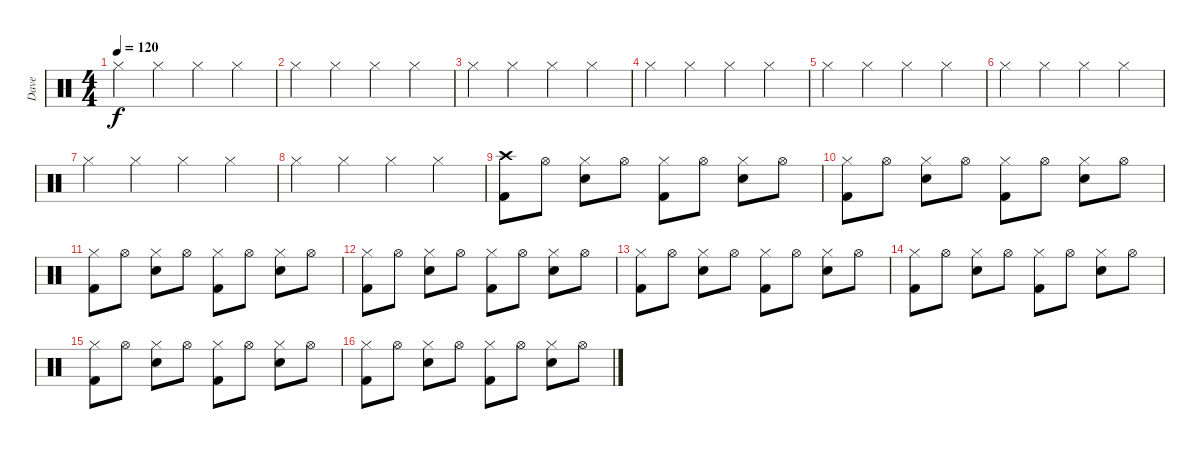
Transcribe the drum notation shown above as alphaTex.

\track ("Dave" "Dave") {instrument percussion}
\staff {score}
\articulation defaults
\ts (4 4)
\tempo 120
\clef neutral
\ks c "Hi-Hat (closed)".4{dy f} "Hi-Hat (closed)".4 "Hi-Hat (closed)".4 "Hi-Hat (closed)".4
|
"Hi-Hat (closed)".4 "Hi-Hat (closed)".4 "Hi-Hat (closed)".4 "Hi-Hat (closed)".4 |
"Hi-Hat (closed)".4 "Hi-Hat (closed)".4 "Hi-Hat (closed)".4 "Hi-Hat (closed)".4 |
"Hi-Hat (closed)".4 "Hi-Hat (closed)".4 "Hi-Hat (closed)".4 "Hi-Hat (closed)".4 |
"Hi-Hat (closed)".4 "Hi-Hat (closed)".4 "Hi-Hat (closed)".4 "Hi-Hat (closed)".4 |
"Hi-Hat (closed)".4 "Hi-Hat (closed)".4 "Hi-Hat (closed)".4 "Hi-Hat (closed)".4 |
"Hi-Hat (closed)".4 "Hi-Hat (closed)".4 "Hi-Hat (closed)".4 "Hi-Hat (closed)".4 |
"Hi-Hat (closed)".4 "Hi-Hat (closed)".4 "Hi-Hat (closed)".4 "Hi-Hat (closed)".4 |
("Crash high (hit)" "Kick (hit) 2").8 "Hi-Hat (open)".8 ("Hi-Hat (closed)" "Snare (hit) 2").8 "Hi-Hat (open)".8 ("Hi-Hat (closed)" "Kick (hit) 2").8 "Hi-Hat (open)".8 ("Hi-Hat (closed)" "Snare (hit) 2").8 "Hi-Hat (open)".8 |
("Hi-Hat (closed)" "Kick (hit) 2").8 "Hi-Hat (open)".8 ("Hi-Hat (closed)" "Snare (hit) 2").8 "Hi-Hat (open)".8 ("Hi-Hat (closed)" "Kick (hit) 2").8 "Hi-Hat (open)".8 ("Hi-Hat (closed)" "Snare (hit) 2").8 "Hi-Hat (open)".8 |
("Hi-Hat (closed)" "Kick (hit) 2").8 "Hi-Hat (open)".8 ("Hi-Hat (closed)" "Snare (hit) 2").8 "Hi-Hat (open)".8 ("Hi-Hat (closed)" "Kick (hit) 2").8 "Hi-Hat (open)".8 ("Hi-Hat (closed)" "Snare (hit) 2").8 "Hi-Hat (open)".8 |
("Hi-Hat (closed)" "Kick (hit) 2").8 "Hi-Hat (open)".8 ("Hi-Hat (closed)" "Snare (hit) 2").8 "Hi-Hat (open)".8 ("Hi-Hat (closed)" "Kick (hit) 2").8 "Hi-Hat (open)".8 ("Hi-Hat (closed)" "Snare (hit) 2").8 "Hi-Hat (open)".8 |
("Hi-Hat (closed)" "Kick (hit) 2").8 "Hi-Hat (open)".8 ("Hi-Hat (closed)" "Snare (hit) 2").8 "Hi-Hat (open)".8 ("Hi-Hat (closed)" "Kick (hit) 2").8 "Hi-Hat (open)".8 ("Hi-Hat (closed)" "Snare (hit) 2").8 "Hi-Hat (open)".8 |
("Hi-Hat (closed)" "Kick (hit) 2").8 "Hi-Hat (open)".8 ("Hi-Hat (closed)" "Snare (hit) 2").8 "Hi-Hat (open)".8 ("Hi-Hat (closed)" "Kick (hit) 2").8 "Hi-Hat (open)".8 ("Hi-Hat (closed)" "Snare (hit) 2").8 "Hi-Hat (open)".8 |
("Hi-Hat (closed)" "Kick (hit) 2").8 "Hi-Hat (open)".8 ("Hi-Hat (closed)" "Snare (hit) 2").8 "Hi-Hat (open)".8 ("Hi-Hat (closed)" "Kick (hit) 2").8 "Hi-Hat (open)".8 ("Hi-Hat (closed)" "Snare (hit) 2").8 "Hi-Hat (open)".8 |
("Hi-Hat (closed)" "Kick (hit) 2").8 "Hi-Hat (open)".8 ("Hi-Hat (closed)" "Snare (hit) 2").8 "Hi-Hat (open)".8 ("Hi-Hat (closed)" "Kick (hit) 2").8 "Hi-Hat (open)".8 ("Hi-Hat (closed)" "Snare (hit) 2").8 "Hi-Hat (open)".8
